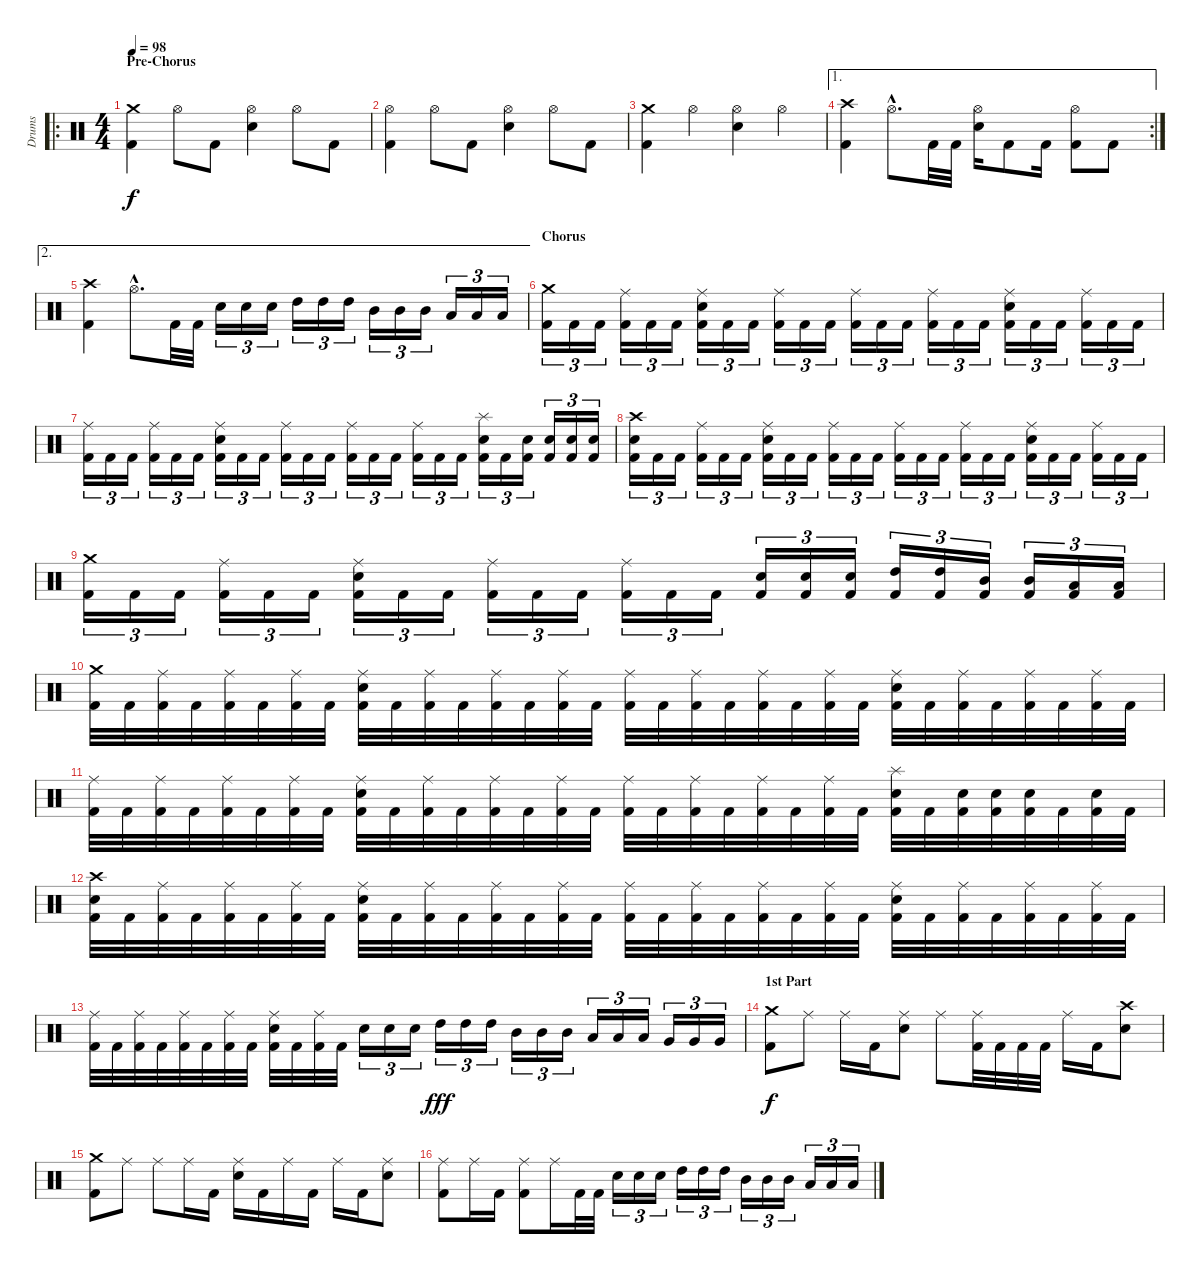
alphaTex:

\track ("Drums" "Drums") {instrument percussion}
\staff {score}
\articulation defaults
\ro
\ts (4 4)
\section ("" "Pre-Chorus")
\tempo 98
\clef neutral
\ks c
("Kick (hit) 2" "Crash medium (hit)").4{dy f} "Hi-Hat (open)".8 "Kick (hit) 2".8 ("Electric Snare (hit)" "Hi-Hat (open)").4 "Hi-Hat (open)".8 "Kick (hit) 2".8 |
("Kick (hit) 2" "Hi-Hat (open)").4 "Hi-Hat (open)".8 "Kick (hit) 2".8 ("Electric Snare (hit)" "Hi-Hat (open)").4 "Hi-Hat (open)".8 "Kick (hit) 2".8 |
("Kick (hit) 2" "Crash medium (hit)").4 "Hi-Hat (open)".4 ("Electric Snare (hit)" "Hi-Hat (open)").4 "Hi-Hat (open)".4 |
\ae 1
\rc 2
("Kick (hit) 2" "Crash high (hit)").4 "Hi-Hat (open)"{hac}.8{d} "Kick (hit) 2".32 "Kick (hit) 2".32 ("Electric Snare (hit)" "Hi-Hat (open)").16 "Kick (hit) 2".8 "Kick (hit) 2".16 ("Kick (hit) 2" "Hi-Hat (open)").8 "Kick (hit) 2".8 |
\ae 2
("Kick (hit) 2" "Crash high (hit)").4 "Hi-Hat (open)"{hac}.8{d} "Kick (hit) 2".32 "Kick (hit) 2".32 "Electric Snare (hit)".16{tu (3 2)} "Electric Snare (hit)".16{tu (3 2)} "Electric Snare (hit)".16{tu (3 2)} "High Tom (hit)".16{tu (3 2)} "High Tom (hit)".16{tu (3 2)} "High Tom (hit)".16{tu (3 2)} "Mid Tom (hit)".16{tu (3 2)} "Mid Tom (hit)".16{tu (3 2)} "Mid Tom (hit)".16{tu (3 2)} "Low Tom (hit)".16{tu (3 2)} "Low Tom (hit)".16{tu (3 2)} "Low Tom (hit)".16{tu (3 2)} |
\section ("" "Chorus")
("Kick (hit) 2" "Crash medium (hit)").16{tu (3 2)} "Kick (hit) 2".16{tu (3 2)} "Kick (hit) 2".16{tu (3 2)} ("Kick (hit) 2" "Ride (middle)").16{tu (3 2)} "Kick (hit) 2".16{tu (3 2)} "Kick (hit) 2".16{tu (3 2)} ("Kick (hit) 2" "Electric Snare (hit)" "Ride (middle)").16{tu (3 2)} "Kick (hit) 2".16{tu (3 2)} "Kick (hit) 2".16{tu (3 2)} ("Kick (hit) 2" "Ride (middle)").16{tu (3 2)} "Kick (hit) 2".16{tu (3 2)} "Kick (hit) 2".16{tu (3 2)} ("Kick (hit) 2" "Ride (middle)").16{tu (3 2)} "Kick (hit) 2".16{tu (3 2)} "Kick (hit) 2".16{tu (3 2)} ("Kick (hit) 2" "Ride (middle)").16{tu (3 2)} "Kick (hit) 2".16{tu (3 2)} "Kick (hit) 2".16{tu (3 2)} ("Kick (hit) 2" "Electric Snare (hit)" "Ride (middle)").16{tu (3 2)} "Kick (hit) 2".16{tu (3 2)} "Kick (hit) 2".16{tu (3 2)} ("Kick (hit) 2" "Ride (middle)").16{tu (3 2)} "Kick (hit) 2".16{tu (3 2)} "Kick (hit) 2".16{tu (3 2)} |
("Kick (hit) 2" "Ride (middle)").16{tu (3 2)} "Kick (hit) 2".16{tu (3 2)} "Kick (hit) 2".16{tu (3 2)} ("Kick (hit) 2" "Ride (middle)").16{tu (3 2)} "Kick (hit) 2".16{tu (3 2)} "Kick (hit) 2".16{tu (3 2)} ("Kick (hit) 2" "Electric Snare (hit)" "Ride (middle)").16{tu (3 2)} "Kick (hit) 2".16{tu (3 2)} "Kick (hit) 2".16{tu (3 2)} ("Kick (hit) 2" "Ride (middle)").16{tu (3 2)} "Kick (hit) 2".16{tu (3 2)} "Kick (hit) 2".16{tu (3 2)} ("Kick (hit) 2" "Ride (middle)").16{tu (3 2)} "Kick (hit) 2".16{tu (3 2)} "Kick (hit) 2".16{tu (3 2)} ("Kick (hit) 2" "Ride (middle)").16{tu (3 2)} "Kick (hit) 2".16{tu (3 2)} "Kick (hit) 2".16{tu (3 2)} ("Kick (hit) 2" "Electric Snare (hit)" "Splash (hit)").16{tu (3 2)} "Kick (hit) 2".16{tu (3 2)} ("Kick (hit) 2" "Electric Snare (hit)").16{tu (3 2)} ("Kick (hit) 2" "Electric Snare (hit)").16{tu (3 2)} ("Kick (hit) 2" "Electric Snare (hit)").16{tu (3 2)} ("Kick (hit) 2" "Electric Snare (hit)").16{tu (3 2)} |
("Kick (hit) 2" "Electric Snare (hit)" "Crash high (hit)").16{tu (3 2)} "Kick (hit) 2".16{tu (3 2)} "Kick (hit) 2".16{tu (3 2)} ("Kick (hit) 2" "Ride (middle)").16{tu (3 2)} "Kick (hit) 2".16{tu (3 2)} "Kick (hit) 2".16{tu (3 2)} ("Kick (hit) 2" "Electric Snare (hit)" "Ride (middle)").16{tu (3 2)} "Kick (hit) 2".16{tu (3 2)} "Kick (hit) 2".16{tu (3 2)} ("Kick (hit) 2" "Ride (middle)").16{tu (3 2)} "Kick (hit) 2".16{tu (3 2)} "Kick (hit) 2".16{tu (3 2)} ("Kick (hit) 2" "Ride (middle)").16{tu (3 2)} "Kick (hit) 2".16{tu (3 2)} "Kick (hit) 2".16{tu (3 2)} ("Kick (hit) 2" "Ride (middle)").16{tu (3 2)} "Kick (hit) 2".16{tu (3 2)} "Kick (hit) 2".16{tu (3 2)} ("Kick (hit) 2" "Electric Snare (hit)" "Ride (middle)").16{tu (3 2)} "Kick (hit) 2".16{tu (3 2)} "Kick (hit) 2".16{tu (3 2)} ("Kick (hit) 2" "Ride (middle)").16{tu (3 2)} "Kick (hit) 2".16{tu (3 2)} "Kick (hit) 2".16{tu (3 2)} |
("Kick (hit) 2" "Crash medium (hit)").16{tu (3 2)} "Kick (hit) 2".16{tu (3 2)} "Kick (hit) 2".16{tu (3 2)} ("Kick (hit) 2" "Ride (middle)").16{tu (3 2)} "Kick (hit) 2".16{tu (3 2)} "Kick (hit) 2".16{tu (3 2)} ("Kick (hit) 2" "Electric Snare (hit)" "Ride (middle)").16{tu (3 2)} "Kick (hit) 2".16{tu (3 2)} "Kick (hit) 2".16{tu (3 2)} ("Kick (hit) 2" "Ride (middle)").16{tu (3 2)} "Kick (hit) 2".16{tu (3 2)} "Kick (hit) 2".16{tu (3 2)} ("Kick (hit) 2" "Ride (middle)").16{tu (3 2)} "Kick (hit) 2".16{tu (3 2)} "Kick (hit) 2".16{tu (3 2)} ("Kick (hit) 2" "Electric Snare (hit)").16{tu (3 2)} ("Kick (hit) 2" "Electric Snare (hit)").16{tu (3 2)} ("Kick (hit) 2" "Electric Snare (hit)").16{tu (3 2)} ("Kick (hit) 2" "High Tom (hit)").16{tu (3 2)} ("Kick (hit) 2" "High Tom (hit)").16{tu (3 2)} ("Kick (hit) 2" "Mid Tom (hit)").16{tu (3 2)} ("Kick (hit) 2" "Mid Tom (hit)").16{tu (3 2)} ("Kick (hit) 2" "Low Tom (hit)").16{tu (3 2)} ("Kick (hit) 2" "Low Tom (hit)").16{tu (3 2)} |
("Kick (hit) 2" "Crash medium (hit)").32 "Kick (hit) 2".32 ("Kick (hit) 2" "Ride (middle)").32 "Kick (hit) 2".32 ("Kick (hit) 2" "Ride (middle)").32 "Kick (hit) 2".32 ("Kick (hit) 2" "Ride (middle)").32 "Kick (hit) 2".32 ("Kick (hit) 2" "Electric Snare (hit)" "Ride (middle)").32 "Kick (hit) 2".32 ("Kick (hit) 2" "Ride (middle)").32 "Kick (hit) 2".32 ("Kick (hit) 2" "Ride (middle)").32 "Kick (hit) 2".32 ("Kick (hit) 2" "Ride (middle)").32 "Kick (hit) 2".32 ("Kick (hit) 2" "Ride (middle)").32 "Kick (hit) 2".32 ("Kick (hit) 2" "Ride (middle)").32 "Kick (hit) 2".32 ("Kick (hit) 2" "Ride (middle)").32 "Kick (hit) 2".32 ("Kick (hit) 2" "Ride (middle)").32 "Kick (hit) 2".32 ("Kick (hit) 2" "Electric Snare (hit)" "Ride (middle)").32 "Kick (hit) 2".32 ("Kick (hit) 2" "Ride (middle)").32 "Kick (hit) 2".32 ("Kick (hit) 2" "Ride (middle)").32 "Kick (hit) 2".32 ("Kick (hit) 2" "Ride (middle)").32 "Kick (hit) 2".32 |
("Kick (hit) 2" "Ride (middle)").32 "Kick (hit) 2".32 ("Kick (hit) 2" "Ride (middle)").32 "Kick (hit) 2".32 ("Kick (hit) 2" "Ride (middle)").32 "Kick (hit) 2".32 ("Kick (hit) 2" "Ride (middle)").32 "Kick (hit) 2".32 ("Kick (hit) 2" "Electric Snare (hit)" "Ride (middle)").32 "Kick (hit) 2".32 ("Kick (hit) 2" "Ride (middle)").32 "Kick (hit) 2".32 ("Kick (hit) 2" "Ride (middle)").32 "Kick (hit) 2".32 ("Kick (hit) 2" "Ride (middle)").32 "Kick (hit) 2".32 ("Kick (hit) 2" "Ride (middle)").32 "Kick (hit) 2".32 ("Kick (hit) 2" "Ride (middle)").32 "Kick (hit) 2".32 ("Kick (hit) 2" "Ride (middle)").32 "Kick (hit) 2".32 ("Kick (hit) 2" "Ride (middle)").32 "Kick (hit) 2".32 ("Kick (hit) 2" "Electric Snare (hit)" "Splash (hit)").32 "Kick (hit) 2".32 ("Kick (hit) 2" "Electric Snare (hit)").32 ("Kick (hit) 2" "Electric Snare (hit)").32 ("Kick (hit) 2" "Electric Snare (hit)").32 "Kick (hit) 2".32 ("Kick (hit) 2" "Electric Snare (hit)").32 "Kick (hit) 2".32 |
("Kick (hit) 2" "Electric Snare (hit)" "Crash high (hit)").32 "Kick (hit) 2".32 ("Kick (hit) 2" "Ride (middle)").32 "Kick (hit) 2".32 ("Kick (hit) 2" "Ride (middle)").32 "Kick (hit) 2".32 ("Kick (hit) 2" "Ride (middle)").32 "Kick (hit) 2".32 ("Kick (hit) 2" "Electric Snare (hit)" "Ride (middle)").32 "Kick (hit) 2".32 ("Kick (hit) 2" "Ride (middle)").32 "Kick (hit) 2".32 ("Kick (hit) 2" "Ride (middle)").32 "Kick (hit) 2".32 ("Kick (hit) 2" "Ride (middle)").32 "Kick (hit) 2".32 ("Kick (hit) 2" "Ride (middle)").32 "Kick (hit) 2".32 ("Kick (hit) 2" "Ride (middle)").32 "Kick (hit) 2".32 ("Kick (hit) 2" "Ride (middle)").32 "Kick (hit) 2".32 ("Kick (hit) 2" "Ride (middle)").32 "Kick (hit) 2".32 ("Kick (hit) 2" "Electric Snare (hit)" "Ride (middle)").32 "Kick (hit) 2".32 ("Kick (hit) 2" "Ride (middle)").32 "Kick (hit) 2".32 ("Kick (hit) 2" "Ride (middle)").32 "Kick (hit) 2".32 ("Kick (hit) 2" "Ride (middle)").32 "Kick (hit) 2".32 |
("Kick (hit) 2" "Ride (middle)").32 "Kick (hit) 2".32 ("Kick (hit) 2" "Ride (middle)").32 "Kick (hit) 2".32 ("Kick (hit) 2" "Ride (middle)").32 "Kick (hit) 2".32 ("Kick (hit) 2" "Ride (middle)").32 "Kick (hit) 2".32 ("Kick (hit) 2" "Electric Snare (hit)" "Ride (middle)").32 "Kick (hit) 2".32 ("Kick (hit) 2" "Ride (middle)").32 "Kick (hit) 2".32 "Electric Snare (hit)".16{tu (3 2)} "Electric Snare (hit)".16{tu (3 2)} "Electric Snare (hit)".16{tu (3 2)} "High Tom (hit)".16{tu (3 2) dy fff} "High Tom (hit)".16{tu (3 2)} "High Tom (hit)".16{tu (3 2)} "Mid Tom (hit)".16{tu (3 2)} "Mid Tom (hit)".16{tu (3 2)} "Mid Tom (hit)".16{tu (3 2)} "Low Tom (hit)".16{tu (3 2)} "Low Tom (hit)".16{tu (3 2)} "Low Tom (hit)".16{tu (3 2)} "Very Low Tom (hit)".16{tu (3 2)} "Very Low Tom (hit)".16{tu (3 2)} "Very Low Tom (hit)".16{tu (3 2)} |
\section ("" "1st Part")
("Kick (hit) 2" "Crash medium (hit)").8{dy f} "Ride (middle)".8 "Ride (middle)".16 "Kick (hit) 2".16 ("Electric Snare (hit)" "Ride (middle)").8 "Ride (middle)".8 ("Kick (hit) 2" "Ride (middle)").32 "Kick (hit) 2".32 "Kick (hit) 2".32 "Kick (hit) 2".32 "Ride (middle)".16 "Kick (hit) 2".16 ("Electric Snare (hit)" "Crash high (hit)").8 |
("Kick (hit) 2" "Crash medium (hit)").8 "Ride (middle)".8 "Ride (middle)".8 "Ride (middle)".16 "Kick (hit) 2".16 ("Electric Snare (hit)" "Ride (middle)").16 "Kick (hit) 2".16 "Ride (middle)".16 "Kick (hit) 2".16 "Ride (middle)".16 "Kick (hit) 2".16 ("Electric Snare (hit)" "Ride (middle)").8 |
("Kick (hit) 2" "Ride (middle)").8 "Ride (middle)".16 "Kick (hit) 2".16 ("Kick (hit) 2" "Ride (middle)").8 "Ride (middle)".16 "Kick (hit) 2".32 "Kick (hit) 2".32 "Electric Snare (hit)".16{tu (3 2)} "Electric Snare (hit)".16{tu (3 2)} "Electric Snare (hit)".16{tu (3 2)} "High Tom (hit)".16{tu (3 2)} "High Tom (hit)".16{tu (3 2)} "High Tom (hit)".16{tu (3 2)} "Mid Tom (hit)".16{tu (3 2)} "Mid Tom (hit)".16{tu (3 2)} "Mid Tom (hit)".16{tu (3 2)} "Low Tom (hit)".16{tu (3 2)} "Low Tom (hit)".16{tu (3 2)} "Low Tom (hit)".16{tu (3 2)}
